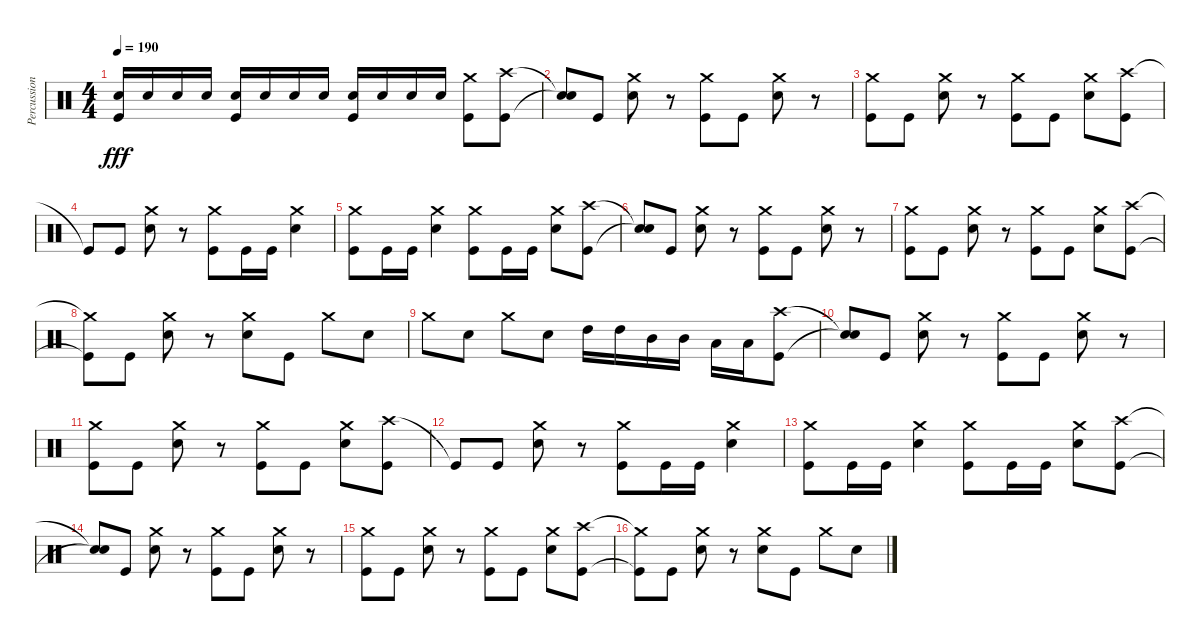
\track ("Percussion" "Percussion") {instrument percussion}
\staff {score}
\articulation defaults
\ts (4 4)
\tempo 190
\clef neutral
\ks c
("Snare (hit) 2" "Kick (hit)").16{dy fff} "Snare (hit) 2".16 "Snare (hit) 2".16 "Snare (hit) 2".16 ("Snare (hit) 2" "Kick (hit)").16 "Snare (hit) 2".16 "Snare (hit) 2".16 "Snare (hit) 2".16 ("Snare (hit) 2" "Kick (hit)").16 "Snare (hit) 2".16 "Snare (hit) 2".16 "Snare (hit) 2".16 ("Crash medium (hit)" "Kick (hit)").8 ("Crash high (hit)" "Kick (hit)").8 |
("Snare (hit)"{t} "Snare (hit)"{t}).8 "Kick (hit)".8 ("Crash medium (hit)" "Snare (hit) 2").8 r.8 ("Crash medium (hit)" "Kick (hit)").8 "Kick (hit)".8 ("Crash medium (hit)" "Snare (hit) 2").8 r.8 |
("Crash medium (hit)" "Kick (hit)").8 "Kick (hit)".8 ("Crash medium (hit)" "Snare (hit) 2").8 r.8 ("Crash medium (hit)" "Kick (hit)").8 "Kick (hit)".8 ("Crash medium (hit)" "Snare (hit) 2").8 ("Crash high (hit)" "Kick (hit)").8 |
"Kick (hit)"{t}.8 "Kick (hit)".8 ("Crash medium (hit)" "Snare (hit) 2").8 r.8 ("Crash medium (hit)" "Kick (hit)").8 "Kick (hit)".16 "Kick (hit)".16 ("Crash medium (hit)" "Snare (hit) 2").4 |
("Crash medium (hit)" "Kick (hit)").8 "Kick (hit)".16 "Kick (hit)".16 ("Crash medium (hit)" "Snare (hit) 2").4 ("Crash medium (hit)" "Kick (hit)").8 "Kick (hit)".16 "Kick (hit)".16 ("Crash medium (hit)" "Snare (hit) 2").8 ("Crash high (hit)" "Kick (hit)").8 |
("Snare (hit)"{t} "Snare (hit)"{t}).8 "Kick (hit)".8 ("Crash medium (hit)" "Snare (hit) 2").8 r.8 ("Crash medium (hit)" "Kick (hit)").8 "Kick (hit)".8 ("Crash medium (hit)" "Snare (hit) 2").8 r.8 |
("Crash medium (hit)" "Kick (hit)").8 "Kick (hit)".8 ("Crash medium (hit)" "Snare (hit) 2").8 r.8 ("Crash medium (hit)" "Kick (hit)").8 "Kick (hit)".8 ("Crash medium (hit)" "Snare (hit) 2").8 ("Crash high (hit)" "Kick (hit)").8 |
("Crash medium (hit)"{t} "Kick (hit)"{t}).8 "Kick (hit)".8 ("Crash medium (hit)" "Snare (hit) 2").8 r.8 ("Crash medium (hit)" "Snare (hit) 2").8 "Kick (hit)".8 "Crash medium (hit)".8 "Snare (hit) 2".8 |
"Crash medium (hit)".8 "Snare (hit) 2".8 "Crash medium (hit)".8 "Snare (hit) 2".8 "High Tom (hit)".16 "High Tom (hit)".16 "Mid Tom (hit)".16 "Mid Tom (hit)".16 "Low Tom (hit)".16 "Low Tom (hit)".16 ("Crash high (hit)" "Kick (hit)").8 |
("Snare (hit)"{t} "Snare (hit)"{t}).8 "Kick (hit)".8 ("Crash medium (hit)" "Snare (hit) 2").8 r.8 ("Crash medium (hit)" "Kick (hit)").8 "Kick (hit)".8 ("Crash medium (hit)" "Snare (hit) 2").8 r.8 |
("Crash medium (hit)" "Kick (hit)").8 "Kick (hit)".8 ("Crash medium (hit)" "Snare (hit) 2").8 r.8 ("Crash medium (hit)" "Kick (hit)").8 "Kick (hit)".8 ("Crash medium (hit)" "Snare (hit) 2").8 ("Crash high (hit)" "Kick (hit)").8 |
"Kick (hit)"{t}.8 "Kick (hit)".8 ("Crash medium (hit)" "Snare (hit) 2").8 r.8 ("Crash medium (hit)" "Kick (hit)").8 "Kick (hit)".16 "Kick (hit)".16 ("Crash medium (hit)" "Snare (hit) 2").4 |
("Crash medium (hit)" "Kick (hit)").8 "Kick (hit)".16 "Kick (hit)".16 ("Crash medium (hit)" "Snare (hit) 2").4 ("Crash medium (hit)" "Kick (hit)").8 "Kick (hit)".16 "Kick (hit)".16 ("Crash medium (hit)" "Snare (hit) 2").8 ("Crash high (hit)" "Kick (hit)").8 |
("Snare (hit)"{t} "Snare (hit)"{t}).8 "Kick (hit)".8 ("Crash medium (hit)" "Snare (hit) 2").8 r.8 ("Crash medium (hit)" "Kick (hit)").8 "Kick (hit)".8 ("Crash medium (hit)" "Snare (hit) 2").8 r.8 |
("Crash medium (hit)" "Kick (hit)").8 "Kick (hit)".8 ("Crash medium (hit)" "Snare (hit) 2").8 r.8 ("Crash medium (hit)" "Kick (hit)").8 "Kick (hit)".8 ("Crash medium (hit)" "Snare (hit) 2").8 ("Crash high (hit)" "Kick (hit)").8 |
("Crash medium (hit)"{t} "Kick (hit)"{t}).8 "Kick (hit)".8 ("Crash medium (hit)" "Snare (hit) 2").8 r.8 ("Crash medium (hit)" "Snare (hit) 2").8 "Kick (hit)".8 "Crash medium (hit)".8 "Snare (hit) 2".8
